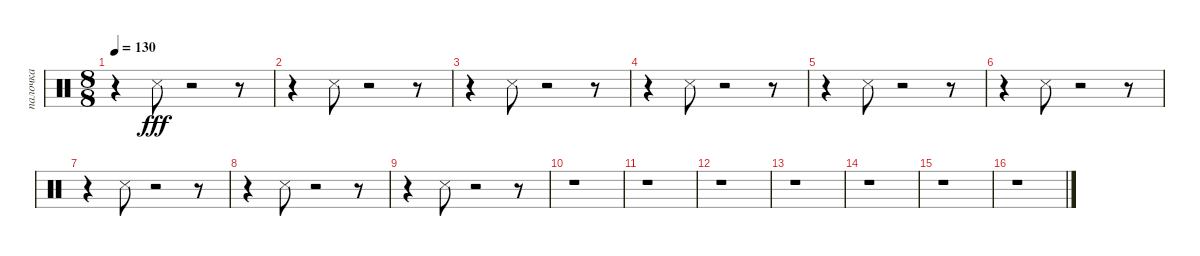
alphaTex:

\track ("палочка" "палочка") {instrument percussion}
\staff {score}
\articulation defaults
\ts (8 8)
\tempo 130
\clef neutral
\ks c
r.4{dy fff} "Snare (side stick) 3".8 r.2 r.8 |
r.4 "Snare (side stick) 3".8 r.2 r.8 |
r.4 "Snare (side stick) 3".8 r.2 r.8 |
r.4 "Snare (side stick) 3".8 r.2 r.8 |
r.4 "Snare (side stick) 3".8 r.2 r.8 |
r.4 "Snare (side stick) 3".8 r.2 r.8 |
r.4 "Snare (side stick) 3".8 r.2 r.8 |
r.4 "Snare (side stick) 3".8 r.2 r.8 |
r.4 "Snare (side stick) 3".8 r.2 r.8 |
r.1 |
r.1 |
r.1 |
r.1 |
r.1 |
r.1 |
r.1
